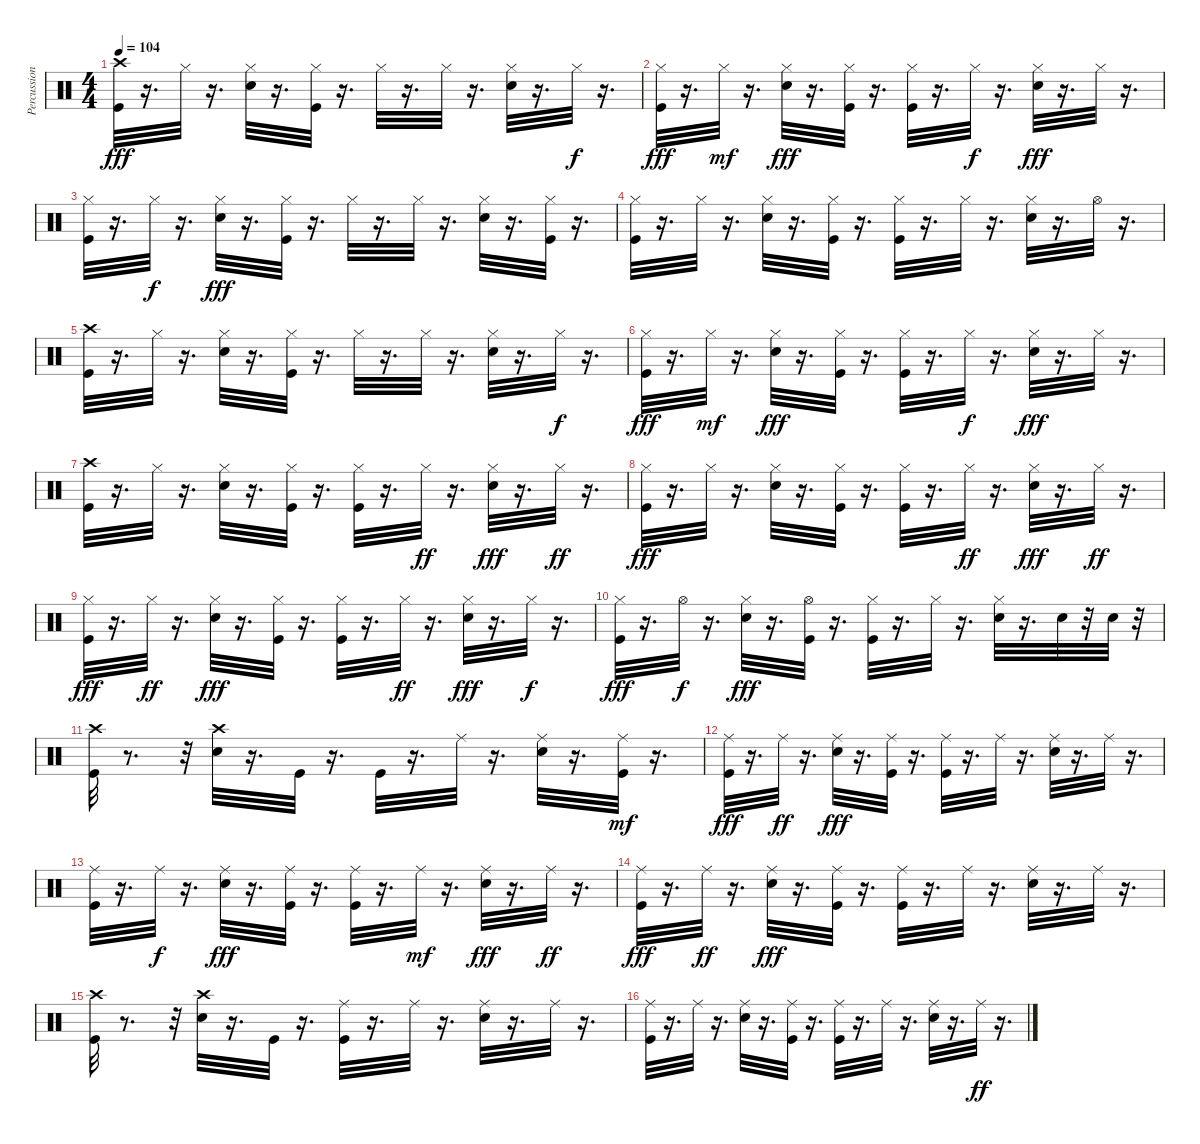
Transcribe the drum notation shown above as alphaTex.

\track ("Percussion" "Percussion") {instrument percussion}
\staff {score}
\articulation defaults
\ts (4 4)
\tempo 104
\clef neutral
\ks c
("Crash high (hit)" "Kick (hit)").32{dy fff} r.16{d} "Hi-Hat (closed)".32 r.16{d} ("Hi-Hat (closed)" "Snare (hit) 2").32 r.16{d} ("Hi-Hat (closed)" "Kick (hit)").32 r.16{d} "Hi-Hat (closed)".32 r.16{d} "Hi-Hat (closed)".32 r.16{d} ("Hi-Hat (closed)" "Snare (hit) 2").32 r.16{d} "Hi-Hat (closed)".32{dy f} r.16{d} |
("Hi-Hat (closed)" "Kick (hit)").32{dy fff} r.16{d} "Hi-Hat (closed)".32{dy mf} r.16{d} ("Hi-Hat (closed)" "Snare (hit) 2").32{dy fff} r.16{d} ("Hi-Hat (closed)" "Kick (hit)").32 r.16{d} ("Hi-Hat (closed)" "Kick (hit)").32 r.16{d} "Hi-Hat (closed)".32{dy f} r.16{d} ("Hi-Hat (closed)" "Snare (hit) 2").32{dy fff} r.16{d} "Hi-Hat (closed)".32 r.16{d} |
("Hi-Hat (closed)" "Kick (hit)").32 r.16{d} "Hi-Hat (closed)".32{dy f} r.16{d} ("Hi-Hat (closed)" "Snare (hit) 2").32{dy fff} r.16{d} ("Hi-Hat (closed)" "Kick (hit)").32 r.16{d} "Hi-Hat (closed)".32 r.16{d} "Hi-Hat (closed)".32 r.16{d} ("Hi-Hat (closed)" "Snare (hit) 2").32 r.16{d} ("Hi-Hat (closed)" "Kick (hit)").32 r.16{d} |
("Hi-Hat (closed)" "Kick (hit)").32 r.16{d} "Hi-Hat (closed)".32 r.16{d} ("Hi-Hat (closed)" "Snare (hit) 2").32 r.16{d} ("Hi-Hat (closed)" "Kick (hit)").32 r.16{d} ("Hi-Hat (closed)" "Kick (hit)").32 r.16{d} "Hi-Hat (closed)".32 r.16{d} ("Hi-Hat (closed)" "Snare (hit) 2").32 r.16{d} "Hi-Hat (open)".32 r.16{d} |
("Crash high (hit)" "Kick (hit)").32 r.16{d} "Hi-Hat (closed)".32 r.16{d} ("Hi-Hat (closed)" "Snare (hit) 2").32 r.16{d} ("Hi-Hat (closed)" "Kick (hit)").32 r.16{d} "Hi-Hat (closed)".32 r.16{d} "Hi-Hat (closed)".32 r.16{d} ("Hi-Hat (closed)" "Snare (hit) 2").32 r.16{d} "Hi-Hat (closed)".32{dy f} r.16{d} |
("Hi-Hat (closed)" "Kick (hit)").32{dy fff} r.16{d} "Hi-Hat (closed)".32{dy mf} r.16{d} ("Hi-Hat (closed)" "Snare (hit) 2").32{dy fff} r.16{d} ("Hi-Hat (closed)" "Kick (hit)").32 r.16{d} ("Hi-Hat (closed)" "Kick (hit)").32 r.16{d} "Hi-Hat (closed)".32{dy f} r.16{d} ("Hi-Hat (closed)" "Snare (hit) 2").32{dy fff} r.16{d} "Hi-Hat (closed)".32 r.16{d} |
("Crash high (hit)" "Kick (hit)").32 r.16{d} "Hi-Hat (closed)".32 r.16{d} ("Hi-Hat (closed)" "Snare (hit) 2").32 r.16{d} ("Hi-Hat (closed)" "Kick (hit)").32 r.16{d} ("Hi-Hat (closed)" "Kick (hit)").32 r.16{d} "Hi-Hat (closed)".32{dy ff} r.16{d} ("Hi-Hat (closed)" "Snare (hit) 2").32{dy fff} r.16{d} "Hi-Hat (closed)".32{dy ff} r.16{d} |
("Hi-Hat (closed)" "Kick (hit)").32{dy fff} r.16{d} "Hi-Hat (closed)".32 r.16{d} ("Hi-Hat (closed)" "Snare (hit) 2").32 r.16{d} ("Hi-Hat (closed)" "Kick (hit)").32 r.16{d} ("Hi-Hat (closed)" "Kick (hit)").32 r.16{d} "Hi-Hat (closed)".32{dy ff} r.16{d} ("Hi-Hat (closed)" "Snare (hit) 2").32{dy fff} r.16{d} "Hi-Hat (closed)".32{dy ff} r.16{d} |
("Hi-Hat (closed)" "Kick (hit)").32{dy fff} r.16{d} "Hi-Hat (closed)".32{dy ff} r.16{d} ("Hi-Hat (closed)" "Snare (hit) 2").32{dy fff} r.16{d} ("Hi-Hat (closed)" "Kick (hit)").32 r.16{d} ("Hi-Hat (closed)" "Kick (hit)").32 r.16{d} "Hi-Hat (closed)".32{dy ff} r.16{d} ("Hi-Hat (closed)" "Snare (hit) 2").32{dy fff} r.16{d} "Hi-Hat (closed)".32{dy f} r.16{d} |
("Hi-Hat (closed)" "Kick (hit)").32{dy fff} r.16{d} "Hi-Hat (open)".32{dy f} r.16{d} ("Hi-Hat (closed)" "Snare (hit) 2").32{dy fff} r.16{d} ("Hi-Hat (open)" "Kick (hit)").32 r.16{d} ("Hi-Hat (closed)" "Kick (hit)").32 r.16{d} "Hi-Hat (closed)".32 r.16{d} ("Hi-Hat (closed)" "Snare (hit) 2").32 r.16{d} "Snare (hit) 2".32 r.32 "Snare (hit) 2".32 r.32 |
("Crash high (hit)" "Kick (hit)").32 r.8{d} r.32 ("Crash high (hit)" "Snare (hit) 2").32 r.16{d} "Kick (hit)".32 r.16{d} "Kick (hit)".32 r.16{d} "Ride (middle)".32 r.16{d} ("Ride (middle)" "Snare (hit) 2").32 r.16{d} ("Ride (middle)" "Kick (hit)").32{dy mf} r.16{d} |
("Ride (middle)" "Kick (hit)").32{dy fff} r.16{d} "Ride (middle)".32{dy ff} r.16{d} ("Ride (middle)" "Snare (hit) 2").32{dy fff} r.16{d} ("Ride (middle)" "Kick (hit)").32 r.16{d} ("Ride (middle)" "Kick (hit)").32 r.16{d} "Ride (middle)".32 r.16{d} ("Ride (middle)" "Snare (hit) 2").32 r.16{d} "Ride (middle)".32 r.16{d} |
("Ride (middle)" "Kick (hit)").32 r.16{d} "Ride (middle)".32{dy f} r.16{d} ("Ride (middle)" "Snare (hit) 2").32{dy fff} r.16{d} ("Ride (middle)" "Kick (hit)").32 r.16{d} ("Ride (middle)" "Kick (hit)").32 r.16{d} "Ride (middle)".32{dy mf} r.16{d} ("Ride (middle)" "Snare (hit) 2").32{dy fff} r.16{d} "Ride (middle)".32{dy ff} r.16{d} |
("Ride (middle)" "Kick (hit)").32{dy fff} r.16{d} "Ride (middle)".32{dy ff} r.16{d} ("Ride (middle)" "Snare (hit) 2").32{dy fff} r.16{d} ("Ride (middle)" "Kick (hit)").32 r.16{d} ("Ride (middle)" "Kick (hit)").32 r.16{d} "Ride (middle)".32 r.16{d} ("Ride (middle)" "Snare (hit) 2").32 r.16{d} "Ride (middle)".32 r.16{d} |
("Crash high (hit)" "Kick (hit)").32 r.8{d} r.32 ("Crash high (hit)" "Snare (hit) 2").32 r.16{d} "Kick (hit)".32 r.16{d} ("Ride (middle)" "Kick (hit)").32 r.16{d} "Ride (middle)".32 r.16{d} ("Ride (middle)" "Snare (hit) 2").32 r.16{d} "Ride (middle)".32 r.16{d} |
("Ride (middle)" "Kick (hit)").32 r.16{d} "Ride (middle)".32 r.16{d} ("Ride (middle)" "Snare (hit) 2").32 r.16{d} ("Ride (middle)" "Kick (hit)").32 r.16{d} ("Ride (middle)" "Kick (hit)").32 r.16{d} "Ride (middle)".32 r.16{d} ("Ride (middle)" "Snare (hit) 2").32 r.16{d} "Ride (middle)".32{dy ff} r.16{d}
